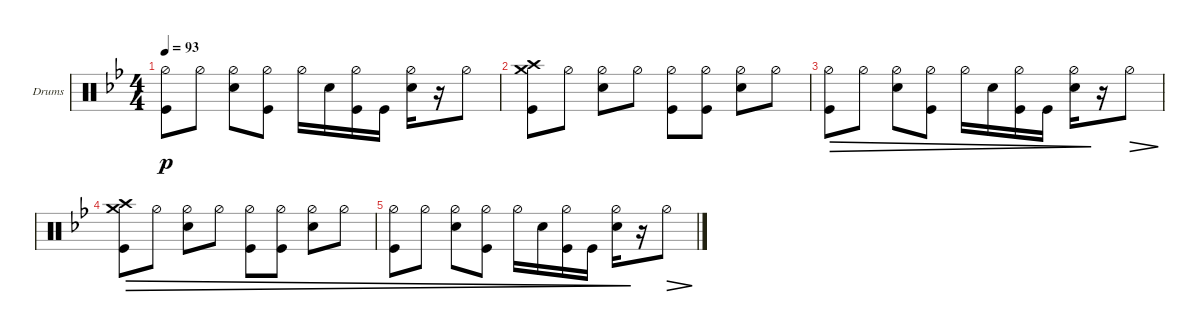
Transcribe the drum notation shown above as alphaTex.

\defaultSystemsLayout 4
\bracketExtendMode groupsimilarinstruments
\firstSystemTrackNameOrientation horizontal
\otherSystemsTrackNameOrientation horizontal
\track ("Drumkit" "Drums") {instrument percussion}
\staff {score}
\articulation defaults
\ts (4 4)
\tempo 93
\clef neutral
\ks bb
("Kick (hit)" "Hi-Hat (half)").8{dy p} "Hi-Hat (half)".8 ("Hi-Hat (half)" "Snare (hit) 2").8 ("Hi-Hat (half)" "Kick (hit)").8 "Hi-Hat (half)".16 "Snare (hit) 2".16 ("Kick (hit)" "Hi-Hat (half)").16 "Kick (hit)".16 ("Hi-Hat (half)" "Snare (hit) 2").16 r.16 "Hi-Hat (half)".8 |
("Crash high (hit)" "Kick (hit)" "Crash medium (hit)").8 "Hi-Hat (half)".8 ("Hi-Hat (half)" "Snare (hit) 2").8 "Hi-Hat (half)".8 ("Hi-Hat (half)" "Kick (hit)").8 ("Hi-Hat (half)" "Kick (hit)").8 ("Hi-Hat (half)" "Snare (hit) 2").8 "Hi-Hat (half)".8 |
("Kick (hit)" "Hi-Hat (half)").8{dec} "Hi-Hat (half)".8{dec} ("Hi-Hat (half)" "Snare (hit) 2").8{dec} ("Hi-Hat (half)" "Kick (hit)").8{dec} "Hi-Hat (half)".16{dec} "Snare (hit) 2".16{dec} ("Kick (hit)" "Hi-Hat (half)").16{dec} "Kick (hit)".16{dec} ("Hi-Hat (half)" "Snare (hit) 2").16{dec} r.16 "Hi-Hat (half)".8{dec} |
("Crash high (hit)" "Kick (hit)" "Crash medium (hit)").8{dec} "Hi-Hat (half)".8{dec} ("Hi-Hat (half)" "Snare (hit) 2").8{dec} "Hi-Hat (half)".8{dec} ("Hi-Hat (half)" "Kick (hit)").8{dec} ("Hi-Hat (half)" "Kick (hit)").8{dec} ("Hi-Hat (half)" "Snare (hit) 2").8{dec} "Hi-Hat (half)".8{dec} |
("Kick (hit)" "Hi-Hat (half)").8{dec} "Hi-Hat (half)".8{dec} ("Hi-Hat (half)" "Snare (hit) 2").8{dec} ("Hi-Hat (half)" "Kick (hit)").8{dec} "Hi-Hat (half)".16{dec} "Snare (hit) 2".16{dec} ("Kick (hit)" "Hi-Hat (half)").16{dec} "Kick (hit)".16{dec} ("Hi-Hat (half)" "Snare (hit) 2").16{dec} r.16 "Hi-Hat (half)".8{dec}
